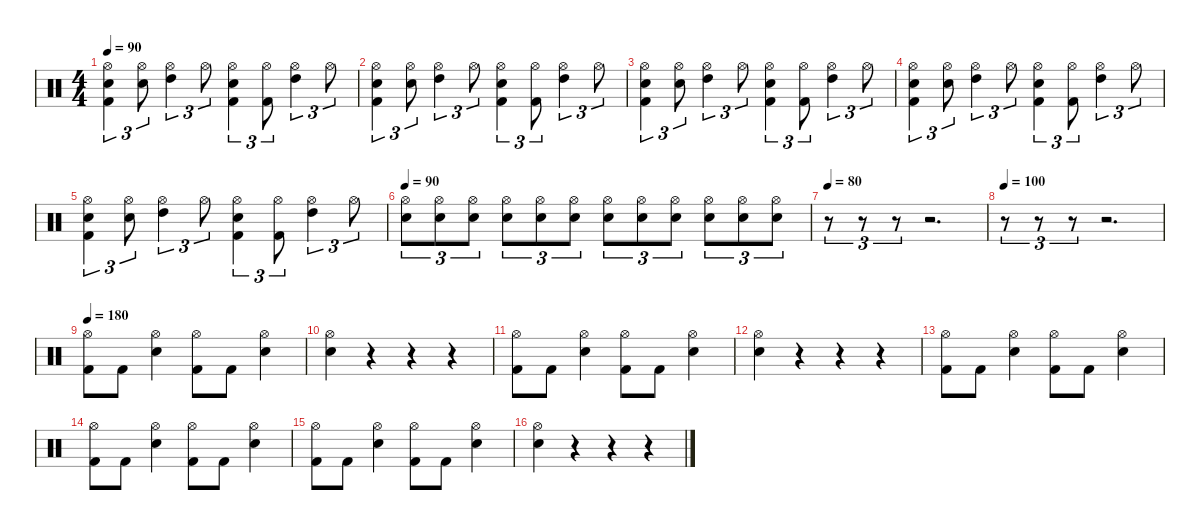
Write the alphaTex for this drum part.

\defaultSystemsLayout 4
\hideDynamics
\bracketExtendMode nobrackets
\singleTrackTrackNamePolicy hidden
\multiTrackTrackNamePolicy hidden
\firstSystemTrackNameMode fullname
\firstSystemTrackNameOrientation horizontal
\otherSystemsTrackNameOrientation horizontal
\track ("Drums" "drm.") {instrument percussion}
\staff {score}
\articulation defaults
\ts (4 4)
\tempo 90
\clef neutral
\ks c
("Hi-Hat (open)" "Snare (hit) 2" "Kick (hit) 2").4{tu (3 2) dy mp beam Down} ("Hi-Hat (open)" "Snare (hit) 2").8{tu (3 2) beam Down} ("Hi-Hat (open)" "High Tom (hit)").4{tu (3 2) dy mf beam Down} "Hi-Hat (open)".8{tu (3 2) dy mp beam Down} ("Hi-Hat (open)" "Snare (hit) 2" "Kick (hit) 2").4{tu (3 2) dy mf beam Down} ("Hi-Hat (open)" "Kick (hit) 2").8{tu (3 2) dy mp beam Down} ("Hi-Hat (open)" "High Tom (hit)").4{tu (3 2) beam Down} "Hi-Hat (open)".8{tu (3 2) beam Down} |
("Hi-Hat (open)" "Snare (hit) 2" "Kick (hit) 2").4{tu (3 2) beam Down} ("Hi-Hat (open)" "Snare (hit) 2").8{tu (3 2) beam Down} ("Hi-Hat (open)" "High Tom (hit)").4{tu (3 2) dy mf beam Down} "Hi-Hat (open)".8{tu (3 2) dy mp beam Down} ("Hi-Hat (open)" "Snare (hit) 2" "Kick (hit) 2").4{tu (3 2) dy mf beam Down} ("Hi-Hat (open)" "Kick (hit) 2").8{tu (3 2) dy mp beam Down} ("Hi-Hat (open)" "High Tom (hit)").4{tu (3 2) beam Down} "Hi-Hat (open)".8{tu (3 2) beam Down} |
("Hi-Hat (open)" "Snare (hit) 2" "Kick (hit) 2").4{tu (3 2) beam Down} ("Hi-Hat (open)" "Snare (hit) 2").8{tu (3 2) beam Down} ("Hi-Hat (open)" "High Tom (hit)").4{tu (3 2) dy mf beam Down} "Hi-Hat (open)".8{tu (3 2) dy mp beam Down} ("Hi-Hat (open)" "Snare (hit) 2" "Kick (hit) 2").4{tu (3 2) dy mf beam Down} ("Hi-Hat (open)" "Kick (hit) 2").8{tu (3 2) dy mp beam Down} ("Hi-Hat (open)" "High Tom (hit)").4{tu (3 2) beam Down} "Hi-Hat (open)".8{tu (3 2) beam Down} |
("Hi-Hat (open)" "Snare (hit) 2" "Kick (hit) 2").4{tu (3 2) beam Down} ("Hi-Hat (open)" "Snare (hit) 2").8{tu (3 2) beam Down} ("Hi-Hat (open)" "High Tom (hit)").4{tu (3 2) dy mf beam Down} "Hi-Hat (open)".8{tu (3 2) dy mp beam Down} ("Hi-Hat (open)" "Snare (hit) 2" "Kick (hit) 2").4{tu (3 2) dy mf beam Down} ("Hi-Hat (open)" "Kick (hit) 2").8{tu (3 2) dy mp beam Down} ("Hi-Hat (open)" "High Tom (hit)").4{tu (3 2) beam Down} "Hi-Hat (open)".8{tu (3 2) beam Down} |
("Hi-Hat (open)" "Snare (hit) 2" "Kick (hit) 2").4{tu (3 2) beam Down} ("Hi-Hat (open)" "Snare (hit) 2").8{tu (3 2) beam Down} ("Hi-Hat (open)" "High Tom (hit)").4{tu (3 2) dy mf beam Down} "Hi-Hat (open)".8{tu (3 2) dy mp beam Down} ("Hi-Hat (open)" "Snare (hit) 2" "Kick (hit) 2").4{tu (3 2) dy mf beam Down} ("Hi-Hat (open)" "Kick (hit) 2").8{tu (3 2) dy mp beam Down} ("Hi-Hat (open)" "High Tom (hit)").4{tu (3 2) beam Down} "Hi-Hat (open)".8{tu (3 2) beam Down} |
\tempo 90
("Hi-Hat (open)" "Snare (hit) 2").8{tu (3 2) dy p beam Down} ("Hi-Hat (open)" "Snare (hit) 2").8{tu (3 2) beam Down} ("Hi-Hat (open)" "Snare (hit) 2").8{tu (3 2) beam Down} ("Hi-Hat (open)" "Snare (hit) 2").8{tu (3 2) beam Down} ("Hi-Hat (open)" "Snare (hit) 2").8{tu (3 2) beam Down} ("Hi-Hat (open)" "Snare (hit) 2").8{tu (3 2) beam Down} ("Hi-Hat (open)" "Snare (hit) 2").8{tu (3 2) beam Down} ("Hi-Hat (open)" "Snare (hit) 2").8{tu (3 2) beam Down} ("Hi-Hat (open)" "Snare (hit) 2").8{tu (3 2) beam Down} ("Hi-Hat (open)" "Snare (hit) 2").8{tu (3 2) beam Down} ("Hi-Hat (open)" "Snare (hit) 2").8{tu (3 2) beam Down} ("Hi-Hat (open)" "Snare (hit) 2").8{tu (3 2) beam Down} |
\tempo 80
r.8{tu (3 2) beam Down} r.8{tu (3 2) beam Down} r.8{tu (3 2) beam Down} r.2{d beam Down} |
\tempo 100
r.8{tu (3 2) beam Down} r.8{tu (3 2) beam Down} r.8{tu (3 2) beam Down} r.2{d beam Down} |
\tempo 180
("Hi-Hat (open)" "Kick (hit) 2").8{dy f beam Down} "Kick (hit) 2".8{beam Down} ("Hi-Hat (open)" "Snare (hit) 2").4{beam Down} ("Hi-Hat (open)" "Kick (hit) 2").8{beam Down} "Kick (hit) 2".8{beam Down} ("Hi-Hat (open)" "Snare (hit) 2").4{beam Down} |
("Hi-Hat (open)" "Snare (hit) 2").4{beam Down} r.4{beam Down} r.4{beam Down} r.4{beam Down} |
("Hi-Hat (open)" "Kick (hit) 2").8{beam Down} "Kick (hit) 2".8{beam Down} ("Hi-Hat (open)" "Snare (hit) 2").4{beam Down} ("Hi-Hat (open)" "Kick (hit) 2").8{beam Down} "Kick (hit) 2".8{beam Down} ("Hi-Hat (open)" "Snare (hit) 2").4{beam Down} |
("Hi-Hat (open)" "Snare (hit) 2").4{beam Down} r.4{beam Down} r.4{beam Down} r.4{beam Down} |
("Hi-Hat (open)" "Kick (hit) 2").8{beam Down} "Kick (hit) 2".8{beam Down} ("Hi-Hat (open)" "Snare (hit) 2").4{beam Down} ("Hi-Hat (open)" "Kick (hit) 2").8{beam Down} "Kick (hit) 2".8{beam Down} ("Hi-Hat (open)" "Snare (hit) 2").4{beam Down} |
("Hi-Hat (open)" "Kick (hit) 2").8{beam Down} "Kick (hit) 2".8{beam Down} ("Hi-Hat (open)" "Snare (hit) 2").4{beam Down} ("Hi-Hat (open)" "Kick (hit) 2").8{beam Down} "Kick (hit) 2".8{beam Down} ("Hi-Hat (open)" "Snare (hit) 2").4{beam Down} |
("Hi-Hat (open)" "Kick (hit) 2").8{beam Down} "Kick (hit) 2".8{beam Down} ("Hi-Hat (open)" "Snare (hit) 2").4{beam Down} ("Hi-Hat (open)" "Kick (hit) 2").8{beam Down} "Kick (hit) 2".8{beam Down} ("Hi-Hat (open)" "Snare (hit) 2").4{beam Down} |
("Hi-Hat (open)" "Snare (hit) 2").4{beam Down} r.4{beam Down} r.4{beam Down} r.4{beam Down}
